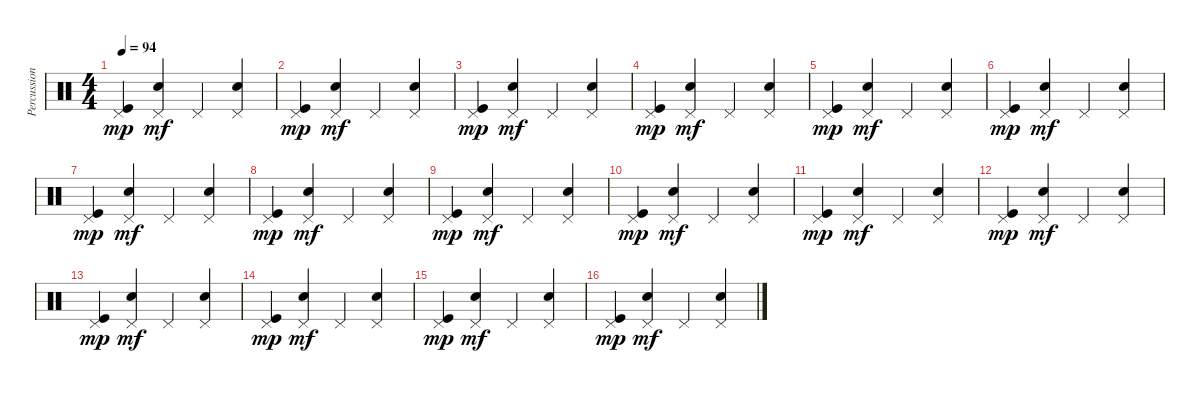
\track ("Percussions" "Percussion") {instrument percussion}
\staff {score}
\articulation defaults
\ts (4 4)
\tempo 94
\clef neutral
\ks c
("Pedal Hi-Hat (hit)" "Kick (hit)").4{dy mp} ("Pedal Hi-Hat (hit)" "Snare (hit) 2").4{dy mf} "Pedal Hi-Hat (hit)".4 ("Pedal Hi-Hat (hit)" "Snare (hit) 2").4 |
("Pedal Hi-Hat (hit)" "Kick (hit)").4{dy mp} ("Pedal Hi-Hat (hit)" "Snare (hit) 2").4{dy mf} "Pedal Hi-Hat (hit)".4 ("Pedal Hi-Hat (hit)" "Snare (hit) 2").4 |
("Pedal Hi-Hat (hit)" "Kick (hit)").4{dy mp} ("Pedal Hi-Hat (hit)" "Snare (hit) 2").4{dy mf} "Pedal Hi-Hat (hit)".4 ("Pedal Hi-Hat (hit)" "Snare (hit) 2").4 |
("Pedal Hi-Hat (hit)" "Kick (hit)").4{dy mp} ("Pedal Hi-Hat (hit)" "Snare (hit) 2").4{dy mf} "Pedal Hi-Hat (hit)".4 ("Pedal Hi-Hat (hit)" "Snare (hit) 2").4 |
("Pedal Hi-Hat (hit)" "Kick (hit)").4{dy mp} ("Pedal Hi-Hat (hit)" "Snare (hit) 2").4{dy mf} "Pedal Hi-Hat (hit)".4 ("Pedal Hi-Hat (hit)" "Snare (hit) 2").4 |
("Pedal Hi-Hat (hit)" "Kick (hit)").4{dy mp} ("Pedal Hi-Hat (hit)" "Snare (hit) 2").4{dy mf} "Pedal Hi-Hat (hit)".4 ("Pedal Hi-Hat (hit)" "Snare (hit) 2").4 |
("Pedal Hi-Hat (hit)" "Kick (hit)").4{dy mp} ("Pedal Hi-Hat (hit)" "Snare (hit) 2").4{dy mf} "Pedal Hi-Hat (hit)".4 ("Pedal Hi-Hat (hit)" "Snare (hit) 2").4 |
("Pedal Hi-Hat (hit)" "Kick (hit)").4{dy mp} ("Pedal Hi-Hat (hit)" "Snare (hit) 2").4{dy mf} "Pedal Hi-Hat (hit)".4 ("Pedal Hi-Hat (hit)" "Snare (hit) 2").4 |
("Pedal Hi-Hat (hit)" "Kick (hit)").4{dy mp} ("Pedal Hi-Hat (hit)" "Snare (hit) 2").4{dy mf} "Pedal Hi-Hat (hit)".4 ("Pedal Hi-Hat (hit)" "Snare (hit) 2").4 |
("Pedal Hi-Hat (hit)" "Kick (hit)").4{dy mp} ("Pedal Hi-Hat (hit)" "Snare (hit) 2").4{dy mf} "Pedal Hi-Hat (hit)".4 ("Pedal Hi-Hat (hit)" "Snare (hit) 2").4 |
("Pedal Hi-Hat (hit)" "Kick (hit)").4{dy mp} ("Pedal Hi-Hat (hit)" "Snare (hit) 2").4{dy mf} "Pedal Hi-Hat (hit)".4 ("Pedal Hi-Hat (hit)" "Snare (hit) 2").4 |
("Pedal Hi-Hat (hit)" "Kick (hit)").4{dy mp} ("Pedal Hi-Hat (hit)" "Snare (hit) 2").4{dy mf} "Pedal Hi-Hat (hit)".4 ("Pedal Hi-Hat (hit)" "Snare (hit) 2").4 |
("Pedal Hi-Hat (hit)" "Kick (hit)").4{dy mp} ("Pedal Hi-Hat (hit)" "Snare (hit) 2").4{dy mf} "Pedal Hi-Hat (hit)".4 ("Pedal Hi-Hat (hit)" "Snare (hit) 2").4 |
("Pedal Hi-Hat (hit)" "Kick (hit)").4{dy mp} ("Pedal Hi-Hat (hit)" "Snare (hit) 2").4{dy mf} "Pedal Hi-Hat (hit)".4 ("Pedal Hi-Hat (hit)" "Snare (hit) 2").4 |
("Pedal Hi-Hat (hit)" "Kick (hit)").4{dy mp} ("Pedal Hi-Hat (hit)" "Snare (hit) 2").4{dy mf} "Pedal Hi-Hat (hit)".4 ("Pedal Hi-Hat (hit)" "Snare (hit) 2").4 |
("Pedal Hi-Hat (hit)" "Kick (hit)").4{dy mp} ("Pedal Hi-Hat (hit)" "Snare (hit) 2").4{dy mf} "Pedal Hi-Hat (hit)".4 ("Pedal Hi-Hat (hit)" "Snare (hit) 2").4
